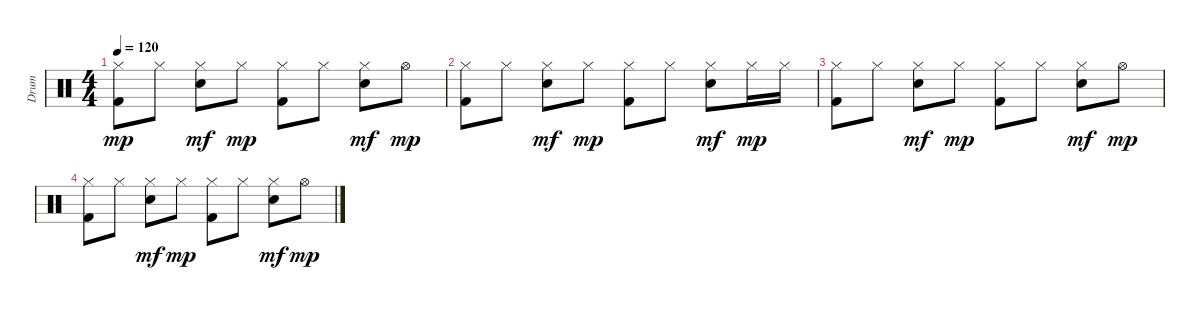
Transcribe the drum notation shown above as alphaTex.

\track ("Drum" "Drum") {instrument percussion}
\staff {score}
\articulation defaults
\ts (4 4)
\tempo 120
\clef neutral
\ks c
("Hi-Hat (closed)" "Kick (hit) 2").8{dy mp} "Hi-Hat (closed)".8 ("Hi-Hat (closed)" "Snare (hit) 2").8{dy mf} "Hi-Hat (closed)".8{dy mp} ("Hi-Hat (closed)" "Kick (hit) 2").8 "Hi-Hat (closed)".8 ("Hi-Hat (closed)" "Snare (hit) 2").8{dy mf} "Hi-Hat (open)".8{dy mp} |
("Hi-Hat (closed)" "Kick (hit) 2").8 "Hi-Hat (closed)".8 ("Hi-Hat (closed)" "Snare (hit) 2").8{dy mf} "Hi-Hat (closed)".8{dy mp} ("Hi-Hat (closed)" "Kick (hit) 2").8 "Hi-Hat (closed)".8 ("Hi-Hat (closed)" "Snare (hit) 2").8{dy mf} "Hi-Hat (closed)".16{dy mp} "Hi-Hat (closed)".16 |
("Hi-Hat (closed)" "Kick (hit) 2").8 "Hi-Hat (closed)".8 ("Hi-Hat (closed)" "Snare (hit) 2").8{dy mf} "Hi-Hat (closed)".8{dy mp} ("Hi-Hat (closed)" "Kick (hit) 2").8 "Hi-Hat (closed)".8 ("Hi-Hat (closed)" "Snare (hit) 2").8{dy mf} "Hi-Hat (open)".8{dy mp} |
("Hi-Hat (closed)" "Kick (hit) 2").8 "Hi-Hat (closed)".8 ("Hi-Hat (closed)" "Snare (hit) 2").8{dy mf} "Hi-Hat (closed)".8{dy mp} ("Hi-Hat (closed)" "Kick (hit) 2").8 "Hi-Hat (closed)".8 ("Hi-Hat (closed)" "Snare (hit) 2").8{dy mf} "Hi-Hat (open)".8{dy mp}
